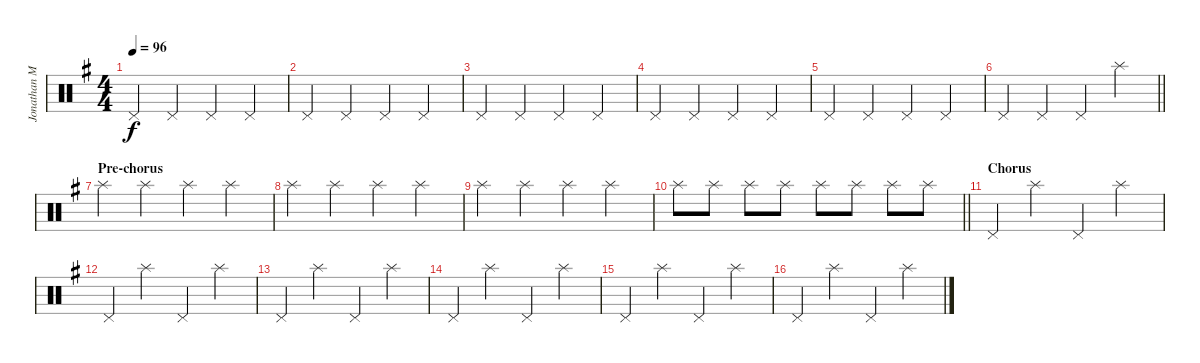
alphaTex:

\track ("Jonathan Mover (Drums)" "Jonathan M") {instrument percussion}
\staff {score}
\articulation defaults
\ts (4 4)
\tempo 96
\clef neutral
\ks g "Pedal Hi-Hat (hit)".4{dy f} "Pedal Hi-Hat (hit)".4 "Pedal Hi-Hat (hit)".4 "Pedal Hi-Hat (hit)".4
|
"Pedal Hi-Hat (hit)".4 "Pedal Hi-Hat (hit)".4 "Pedal Hi-Hat (hit)".4 "Pedal Hi-Hat (hit)".4 |
"Pedal Hi-Hat (hit)".4 "Pedal Hi-Hat (hit)".4 "Pedal Hi-Hat (hit)".4 "Pedal Hi-Hat (hit)".4 |
"Pedal Hi-Hat (hit)".4 "Pedal Hi-Hat (hit)".4 "Pedal Hi-Hat (hit)".4 "Pedal Hi-Hat (hit)".4 |
"Pedal Hi-Hat (hit)".4 "Pedal Hi-Hat (hit)".4 "Pedal Hi-Hat (hit)".4 "Pedal Hi-Hat (hit)".4 |
\barLineRight lightlight "Pedal Hi-Hat (hit)".4 "Pedal Hi-Hat (hit)".4 "Pedal Hi-Hat (hit)".4 "Splash (hit)".4
|
\section ("" "Pre-chorus")
"Splash (hit)".4 "Splash (hit)".4 "Splash (hit)".4 "Splash (hit)".4 |
"Splash (hit)".4 "Splash (hit)".4 "Splash (hit)".4 "Splash (hit)".4 |
"Splash (hit)".4 "Splash (hit)".4 "Splash (hit)".4 "Splash (hit)".4 |
\barLineRight lightlight "Splash (hit)".8 "Splash (hit)".8 "Splash (hit)".8 "Splash (hit)".8 "Splash (hit)".8 "Splash (hit)".8 "Splash (hit)".8 "Splash (hit)".8
|
\section ("" "Chorus")
"Pedal Hi-Hat (hit)".4 "Splash (hit)".4 "Pedal Hi-Hat (hit)".4 "Splash (hit)".4 |
"Pedal Hi-Hat (hit)".4 "Splash (hit)".4 "Pedal Hi-Hat (hit)".4 "Splash (hit)".4 |
"Pedal Hi-Hat (hit)".4 "Splash (hit)".4 "Pedal Hi-Hat (hit)".4 "Splash (hit)".4 |
"Pedal Hi-Hat (hit)".4 "Splash (hit)".4 "Pedal Hi-Hat (hit)".4 "Splash (hit)".4 |
"Pedal Hi-Hat (hit)".4 "Splash (hit)".4 "Pedal Hi-Hat (hit)".4 "Splash (hit)".4 |
"Pedal Hi-Hat (hit)".4 "Splash (hit)".4 "Pedal Hi-Hat (hit)".4 "Splash (hit)".4
